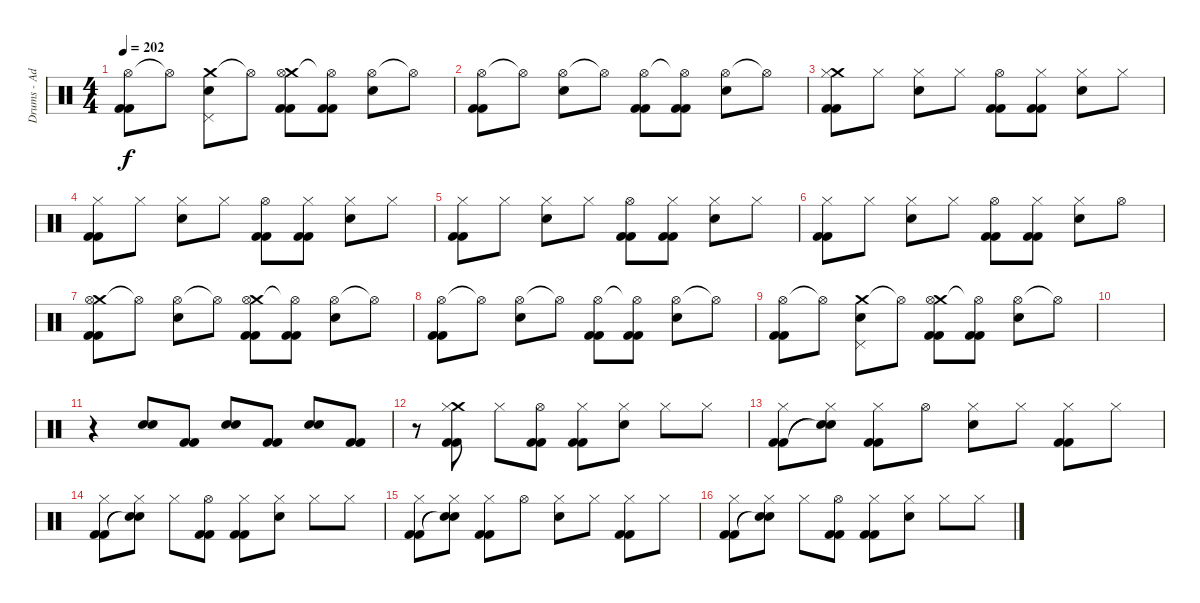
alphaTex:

\track ("Drums - Adam" "Drums - Ad") {instrument percussion}
\staff {score}
\articulation defaults
\ts (4 4)
\tempo 202
\clef neutral
\ks c
("Hi-Hat (open)" "Kick (hit) 2" "Kick (hit) 2").8{dy f} "Hi-Hat (open)"{t}.8 ("Crash medium (hit)" "Pedal Hi-Hat (hit)" "Electric Snare (hit)").8 "Hi-Hat (open)"{t}.8 ("Crash medium (hit)" "Hi-Hat (open)" "Kick (hit) 2" "Kick (hit) 2").8 ("Hi-Hat (open)"{t} "Kick (hit) 2" "Kick (hit) 2").8 ("Hi-Hat (open)" "Electric Snare (hit)").8 "Hi-Hat (open)"{t}.8 |
("Hi-Hat (open)" "Kick (hit) 2" "Kick (hit) 2").8 "Hi-Hat (open)"{t}.8 ("Hi-Hat (open)" "Electric Snare (hit)").8 "Hi-Hat (open)"{t}.8 ("Hi-Hat (open)" "Kick (hit) 2" "Kick (hit) 2").8 ("Hi-Hat (open)"{t} "Kick (hit) 2" "Kick (hit) 2").8 ("Hi-Hat (open)" "Electric Snare (hit)").8 "Hi-Hat (open)"{t}.8 |
("Crash medium (hit)" "Hi-Hat (closed)" "Kick (hit) 2" "Kick (hit) 2").8 "Hi-Hat (closed)".8 ("Hi-Hat (closed)" "Electric Snare (hit)").8 "Hi-Hat (closed)".8 ("Hi-Hat (open)" "Kick (hit) 2" "Kick (hit) 2").8 ("Hi-Hat (closed)" "Kick (hit) 2" "Kick (hit) 2").8 ("Hi-Hat (closed)" "Electric Snare (hit)").8 "Hi-Hat (closed)".8 |
("Hi-Hat (closed)" "Kick (hit) 2" "Kick (hit) 2").8 "Hi-Hat (closed)".8 ("Hi-Hat (closed)" "Electric Snare (hit)").8 "Hi-Hat (closed)".8 ("Hi-Hat (open)" "Kick (hit) 2" "Kick (hit) 2").8 ("Hi-Hat (closed)" "Kick (hit) 2" "Kick (hit) 2").8 ("Hi-Hat (closed)" "Electric Snare (hit)").8 "Hi-Hat (closed)".8 |
("Hi-Hat (closed)" "Kick (hit) 2" "Kick (hit) 2").8 "Hi-Hat (closed)".8 ("Hi-Hat (closed)" "Electric Snare (hit)").8 "Hi-Hat (closed)".8 ("Hi-Hat (open)" "Kick (hit) 2" "Kick (hit) 2").8 ("Hi-Hat (closed)" "Kick (hit) 2" "Kick (hit) 2").8 ("Hi-Hat (closed)" "Electric Snare (hit)").8 "Hi-Hat (closed)".8 |
("Hi-Hat (closed)" "Kick (hit) 2" "Kick (hit) 2").8 "Hi-Hat (closed)".8 ("Hi-Hat (closed)" "Electric Snare (hit)").8 "Hi-Hat (closed)".8 ("Hi-Hat (open)" "Kick (hit) 2" "Kick (hit) 2").8 ("Hi-Hat (closed)" "Kick (hit) 2" "Kick (hit) 2").8 ("Hi-Hat (closed)" "Electric Snare (hit)").8 "Hi-Hat (open)".8 |
("Crash medium (hit)" "Hi-Hat (open)" "Kick (hit) 2" "Kick (hit) 2").8 "Hi-Hat (open)"{t}.8 ("Hi-Hat (open)" "Electric Snare (hit)").8 "Hi-Hat (open)"{t}.8 ("Crash medium (hit)" "Hi-Hat (open)" "Kick (hit) 2" "Kick (hit) 2").8 ("Hi-Hat (open)"{t} "Kick (hit) 2" "Kick (hit) 2").8 ("Hi-Hat (open)" "Electric Snare (hit)").8 "Hi-Hat (open)"{t}.8 |
("Hi-Hat (open)" "Kick (hit) 2" "Kick (hit) 2").8 "Hi-Hat (open)"{t}.8 ("Hi-Hat (open)" "Electric Snare (hit)").8 "Hi-Hat (open)"{t}.8 ("Hi-Hat (open)" "Kick (hit) 2" "Kick (hit) 2").8 ("Hi-Hat (open)"{t} "Kick (hit) 2" "Kick (hit) 2").8 ("Hi-Hat (open)" "Electric Snare (hit)").8 "Hi-Hat (open)"{t}.8 |
("Hi-Hat (open)" "Kick (hit) 2" "Kick (hit) 2").8 "Hi-Hat (open)"{t}.8 ("Crash medium (hit)" "Pedal Hi-Hat (hit)" "Electric Snare (hit)").8 "Hi-Hat (open)"{t}.8 ("Crash medium (hit)" "Hi-Hat (open)" "Kick (hit) 2" "Kick (hit) 2").8 ("Hi-Hat (open)"{t} "Kick (hit) 2" "Kick (hit) 2").8 ("Hi-Hat (open)" "Electric Snare (hit)").8 "Hi-Hat (open)"{t}.8 |
|
r.4 ("Snare (hit) 2" "Electric Snare (hit)").8 ("Kick (hit) 2" "Kick (hit) 2").8 ("Snare (hit) 2" "Electric Snare (hit)").8 ("Kick (hit) 2" "Kick (hit) 2").8 ("Snare (hit) 2" "Electric Snare (hit)").8 ("Kick (hit) 2" "Kick (hit) 2").8 |
r.8 ("Crash medium (hit)" "Hi-Hat (closed)" "Kick (hit) 2" "Kick (hit) 2").8 "Hi-Hat (closed)".8 ("Hi-Hat (open)" "Kick (hit) 2" "Kick (hit) 2").8 ("Hi-Hat (closed)" "Kick (hit) 2" "Kick (hit) 2").8 ("Hi-Hat (closed)" "Electric Snare (hit)").8 "Hi-Hat (closed)".8 "Hi-Hat (closed)".8 |
("Hi-Hat (closed)" "Kick (hit) 2" "Kick (hit) 2").8 ("Hi-Hat (closed)" "Snare (hit)"{t} "Snare (hit)"{t}).8 ("Hi-Hat (closed)" "Kick (hit) 2" "Kick (hit) 2").8 "Hi-Hat (open)".8 ("Hi-Hat (closed)" "Electric Snare (hit)").8 "Hi-Hat (closed)".8 ("Hi-Hat (closed)" "Kick (hit) 2" "Kick (hit) 2").8 "Hi-Hat (closed)".8 |
("Hi-Hat (closed)" "Kick (hit) 2" "Kick (hit) 2").8 ("Hi-Hat (closed)" "Snare (hit)"{t} "Snare (hit)"{t}).8 "Hi-Hat (closed)".8 ("Hi-Hat (open)" "Kick (hit) 2" "Kick (hit) 2").8 ("Hi-Hat (closed)" "Kick (hit) 2" "Kick (hit) 2").8 ("Hi-Hat (closed)" "Electric Snare (hit)").8 "Hi-Hat (closed)".8 "Hi-Hat (closed)".8 |
("Hi-Hat (closed)" "Kick (hit) 2" "Kick (hit) 2").8 ("Hi-Hat (closed)" "Snare (hit)"{t} "Snare (hit)"{t}).8 ("Hi-Hat (closed)" "Kick (hit) 2" "Kick (hit) 2").8 "Hi-Hat (open)".8 ("Hi-Hat (closed)" "Electric Snare (hit)").8 "Hi-Hat (closed)".8 ("Hi-Hat (closed)" "Kick (hit) 2" "Kick (hit) 2").8 "Hi-Hat (closed)".8 |
("Hi-Hat (closed)" "Kick (hit) 2" "Kick (hit) 2").8 ("Hi-Hat (closed)" "Snare (hit)"{t} "Snare (hit)"{t}).8 "Hi-Hat (closed)".8 ("Hi-Hat (open)" "Kick (hit) 2" "Kick (hit) 2").8 ("Hi-Hat (closed)" "Kick (hit) 2" "Kick (hit) 2").8 ("Hi-Hat (closed)" "Electric Snare (hit)").8 "Hi-Hat (closed)".8 "Hi-Hat (closed)".8
